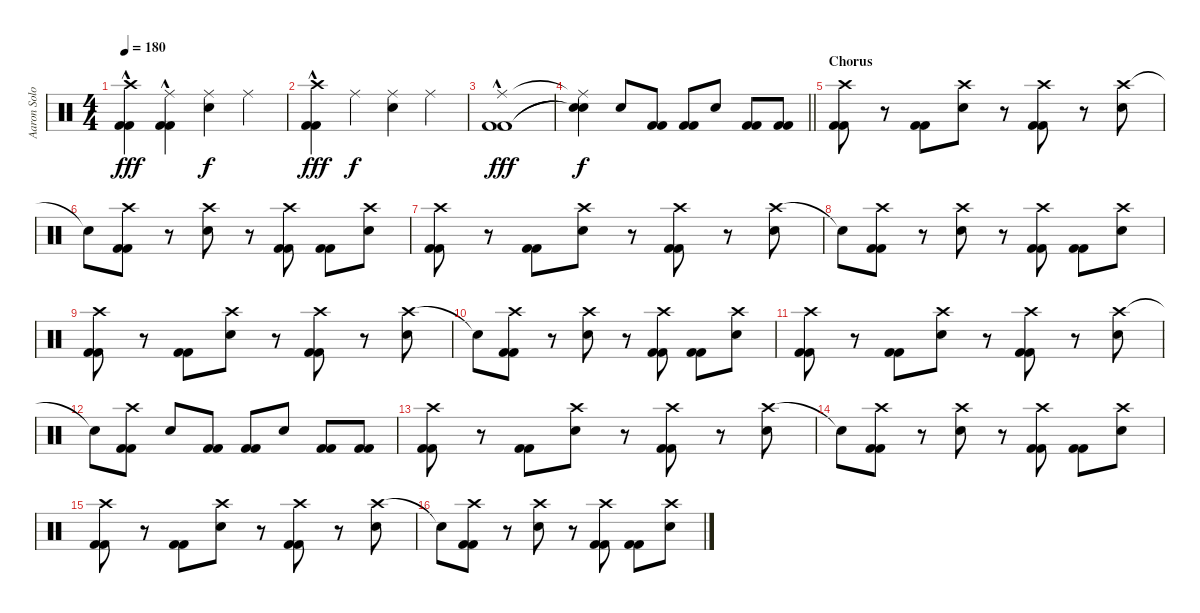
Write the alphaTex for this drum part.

\track ("Aaron Solowoniuk" "Aaron Solo") {instrument percussion}
\staff {score}
\articulation defaults
\ts (4 4)
\tempo 180
\clef neutral
\ks c
("Crash high (hit)" "Kick (hit) 2" "Kick (hit) 2"{hac}).4{dy fff} ("Ride (middle)" "Kick (hit) 2" "Kick (hit) 2"{hac}).4 ("Ride (middle)" "Electric Snare (hit)").4{dy f} "Ride (middle)".4 |
("Crash high (hit)" "Kick (hit) 2" "Kick (hit) 2"{hac}).4{dy fff} "Ride (middle)".4{dy f} ("Ride (middle)" "Electric Snare (hit)").4 "Ride (middle)".4 |
("Ride (middle)" "Kick (hit) 2" "Kick (hit) 2"{hac}).1{dy fff} |
\barLineRight lightlight
("Ride (middle)"{t} "Snare (hit)"{t} "Snare (hit)"{t}).4{dy f} "Electric Snare (hit)".8 ("Kick (hit) 2" "Kick (hit) 2").8 ("Kick (hit) 2" "Kick (hit) 2").8 "Electric Snare (hit)".8 ("Kick (hit) 2" "Kick (hit) 2").8 ("Kick (hit) 2" "Kick (hit) 2").8 |
\section ("" "Chorus")
("Crash high (hit)" "Kick (hit) 2" "Kick (hit) 2").8 r.8 ("Kick (hit) 2" "Kick (hit) 2").8 ("Crash high (hit)" "Electric Snare (hit)").8 r.8 ("Crash high (hit)" "Kick (hit) 2" "Kick (hit) 2").8 r.8 ("Crash high (hit)" "Electric Snare (hit)").8 |
"Snare (hit)"{t}.8 ("Crash high (hit)" "Kick (hit) 2" "Kick (hit) 2").8 r.8 ("Crash high (hit)" "Electric Snare (hit)").8 r.8 ("Crash high (hit)" "Kick (hit) 2" "Kick (hit) 2").8 ("Kick (hit) 2" "Kick (hit) 2").8 ("Crash high (hit)" "Electric Snare (hit)").8 |
("Crash high (hit)" "Kick (hit) 2" "Kick (hit) 2").8 r.8 ("Kick (hit) 2" "Kick (hit) 2").8 ("Crash high (hit)" "Electric Snare (hit)").8 r.8 ("Crash high (hit)" "Kick (hit) 2" "Kick (hit) 2").8 r.8 ("Crash high (hit)" "Electric Snare (hit)").8 |
"Snare (hit)"{t}.8 ("Crash high (hit)" "Kick (hit) 2" "Kick (hit) 2").8 r.8 ("Crash high (hit)" "Electric Snare (hit)").8 r.8 ("Crash high (hit)" "Kick (hit) 2" "Kick (hit) 2").8 ("Kick (hit) 2" "Kick (hit) 2").8 ("Crash high (hit)" "Electric Snare (hit)").8 |
("Crash high (hit)" "Kick (hit) 2" "Kick (hit) 2").8 r.8 ("Kick (hit) 2" "Kick (hit) 2").8 ("Crash high (hit)" "Electric Snare (hit)").8 r.8 ("Crash high (hit)" "Kick (hit) 2" "Kick (hit) 2").8 r.8 ("Crash high (hit)" "Electric Snare (hit)").8 |
"Snare (hit)"{t}.8 ("Crash high (hit)" "Kick (hit) 2" "Kick (hit) 2").8 r.8 ("Crash high (hit)" "Electric Snare (hit)").8 r.8 ("Crash high (hit)" "Kick (hit) 2" "Kick (hit) 2").8 ("Kick (hit) 2" "Kick (hit) 2").8 ("Crash high (hit)" "Electric Snare (hit)").8 |
("Crash high (hit)" "Kick (hit) 2" "Kick (hit) 2").8 r.8 ("Kick (hit) 2" "Kick (hit) 2").8 ("Crash high (hit)" "Electric Snare (hit)").8 r.8 ("Crash high (hit)" "Kick (hit) 2" "Kick (hit) 2").8 r.8 ("Crash high (hit)" "Electric Snare (hit)").8 |
"Snare (hit)"{t}.8 ("Crash high (hit)" "Kick (hit) 2" "Kick (hit) 2").8 "Electric Snare (hit)".8 ("Kick (hit) 2" "Kick (hit) 2").8 ("Kick (hit) 2" "Kick (hit) 2").8 "Electric Snare (hit)".8 ("Kick (hit) 2" "Kick (hit) 2").8 ("Kick (hit) 2" "Kick (hit) 2").8 |
("Crash high (hit)" "Kick (hit) 2" "Kick (hit) 2").8 r.8 ("Kick (hit) 2" "Kick (hit) 2").8 ("Crash high (hit)" "Electric Snare (hit)").8 r.8 ("Crash high (hit)" "Kick (hit) 2" "Kick (hit) 2").8 r.8 ("Crash high (hit)" "Electric Snare (hit)").8 |
"Snare (hit)"{t}.8 ("Crash high (hit)" "Kick (hit) 2" "Kick (hit) 2").8 r.8 ("Crash high (hit)" "Electric Snare (hit)").8 r.8 ("Crash high (hit)" "Kick (hit) 2" "Kick (hit) 2").8 ("Kick (hit) 2" "Kick (hit) 2").8 ("Crash high (hit)" "Electric Snare (hit)").8 |
("Crash high (hit)" "Kick (hit) 2" "Kick (hit) 2").8 r.8 ("Kick (hit) 2" "Kick (hit) 2").8 ("Crash high (hit)" "Electric Snare (hit)").8 r.8 ("Crash high (hit)" "Kick (hit) 2" "Kick (hit) 2").8 r.8 ("Crash high (hit)" "Electric Snare (hit)").8 |
"Snare (hit)"{t}.8 ("Crash high (hit)" "Kick (hit) 2" "Kick (hit) 2").8 r.8 ("Crash high (hit)" "Electric Snare (hit)").8 r.8 ("Crash high (hit)" "Kick (hit) 2" "Kick (hit) 2").8 ("Kick (hit) 2" "Kick (hit) 2").8 ("Crash high (hit)" "Electric Snare (hit)").8
